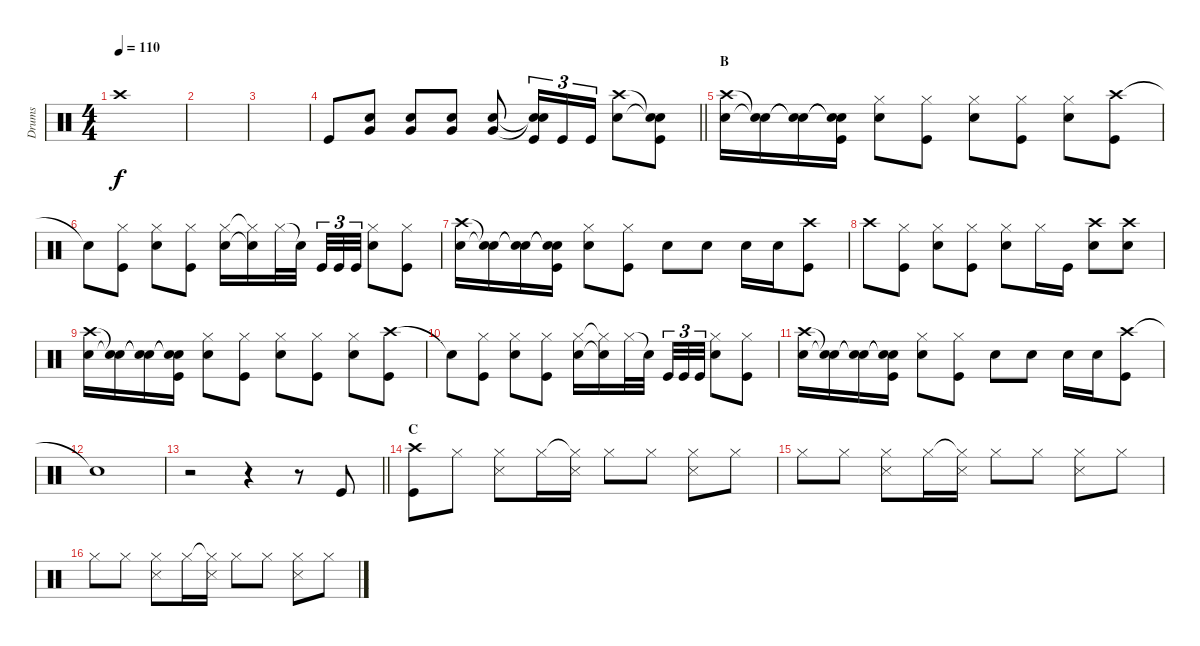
\track ("Drums" "Drums") {instrument percussion}
\staff {score}
\articulation defaults
\ts (4 4)
\tempo 110
\clef neutral
\ks c "Crash high (hit)".1{dy f}
|
|
|
\barLineRight lightlight "Kick (hit)".8
("Snare (hit) 2" "Very Low Tom (hit)").8 ("Snare (hit) 2" "Very Low Tom (hit)").8 ("Snare (hit) 2" "Very Low Tom (hit)").8 ("Snare (hit) 2" "Very Low Tom (hit)").8 ("Snare (hit)"{t} "Snare (hit)"{t} "Kick (hit)").16{tu (3 2)} "Kick (hit)".16{tu (3 2)} "Kick (hit)".16{tu (3 2)} ("Crash high (hit)" "Snare (hit) 2").8 ("Snare (hit)"{t} "Snare (hit)"{t} "Kick (hit)").8 |
\section ("" "B")
("Crash high (hit)" "Snare (hit) 2").16 ("Snare (hit)"{t} "Snare (hit)"{t}).16 ("Snare (hit)"{t} "Snare (hit)"{t}).16 ("Snare (hit)"{t} "Snare (hit)"{t} "Kick (hit)").16 ("Hi-Hat (closed)" "Snare (hit) 2").8 ("Hi-Hat (closed)" "Kick (hit)").8 ("Hi-Hat (closed)" "Snare (hit) 2").8 ("Hi-Hat (closed)" "Kick (hit)").8 ("Hi-Hat (closed)" "Snare (hit) 2").8 ("Crash high (hit)" "Kick (hit)").8 |
"Snare (hit)"{t}.8 ("Hi-Hat (closed)" "Kick (hit)").8 ("Hi-Hat (closed)" "Snare (hit) 2").8 ("Hi-Hat (closed)" "Kick (hit)").8 ("Hi-Hat (closed)" "Snare (hit) 2").16 ("Hi-Hat (closed)"{t} "Snare (hit)"{t}).16 "Hi-Hat (closed)".32 "Snare (hit)"{t}.32{beam splitsecondary} "Kick (hit)".32{tu (3 2)} "Kick (hit)".32{tu (3 2)} "Kick (hit)".32{tu (3 2)} ("Hi-Hat (closed)" "Snare (hit) 2").8 ("Hi-Hat (closed)" "Kick (hit)").8 |
("Crash high (hit)" "Snare (hit) 2").16 ("Snare (hit)"{t} "Snare (hit)"{t}).16 ("Snare (hit)"{t} "Snare (hit)"{t}).16 ("Snare (hit)"{t} "Snare (hit)"{t} "Kick (hit)").16 ("Hi-Hat (closed)" "Snare (hit) 2").8 ("Hi-Hat (closed)" "Kick (hit)").8 "Snare (hit) 2".8 "Snare (hit) 2".8 "Snare (hit) 2".16 "Snare (hit) 2".16 ("Crash high (hit)" "Kick (hit)").8 |
"Crash high (hit)".8 ("Hi-Hat (closed)" "Kick (hit)").8 ("Hi-Hat (closed)" "Snare (hit) 2").8 ("Hi-Hat (closed)" "Kick (hit)").8 ("Hi-Hat (closed)" "Snare (hit) 2").8 "Hi-Hat (closed)".16 "Kick (hit)".16 ("Crash high (hit)" "Snare (hit) 2").8 ("Crash high (hit)" "Snare (hit) 2").8 |
("Crash high (hit)" "Snare (hit) 2").16 ("Snare (hit)"{t} "Snare (hit)"{t}).16 ("Snare (hit)"{t} "Snare (hit)"{t}).16 ("Snare (hit)"{t} "Snare (hit)"{t} "Kick (hit)").16 ("Hi-Hat (closed)" "Snare (hit) 2").8 ("Hi-Hat (closed)" "Kick (hit)").8 ("Hi-Hat (closed)" "Snare (hit) 2").8 ("Hi-Hat (closed)" "Kick (hit)").8 ("Hi-Hat (closed)" "Snare (hit) 2").8 ("Crash high (hit)" "Kick (hit)").8 |
"Snare (hit)"{t}.8 ("Hi-Hat (closed)" "Kick (hit)").8 ("Hi-Hat (closed)" "Snare (hit) 2").8 ("Hi-Hat (closed)" "Kick (hit)").8 ("Hi-Hat (closed)" "Snare (hit) 2").16 ("Hi-Hat (closed)"{t} "Snare (hit)"{t}).16 "Hi-Hat (closed)".32 "Snare (hit)"{t}.32{beam splitsecondary} "Kick (hit)".32{tu (3 2)} "Kick (hit)".32{tu (3 2)} "Kick (hit)".32{tu (3 2)} ("Hi-Hat (closed)" "Snare (hit) 2").8 ("Hi-Hat (closed)" "Kick (hit)").8 |
("Crash high (hit)" "Snare (hit) 2").16 ("Snare (hit)"{t} "Snare (hit)"{t}).16 ("Snare (hit)"{t} "Snare (hit)"{t}).16 ("Snare (hit)"{t} "Snare (hit)"{t} "Kick (hit)").16 ("Hi-Hat (closed)" "Snare (hit) 2").8 ("Hi-Hat (closed)" "Kick (hit)").8 "Snare (hit) 2".8 "Snare (hit) 2".8 "Snare (hit) 2".16 "Snare (hit) 2".16 ("Crash high (hit)" "Kick (hit)").8 |
"Snare (hit)"{t}.1 |
\barLineRight lightlight
r.2 r.4 r.8 "Kick (hit)".8 |
\section ("" "C")
("Crash high (hit)" "Kick (hit)").8 "Hi-Hat (closed)".8 ("Hi-Hat (closed)" "Snare (side stick) 3").8 "Hi-Hat (closed)".16 ("Hi-Hat (closed)"{t} "Snare (side stick) 3").16 "Hi-Hat (closed)".8 "Hi-Hat (closed)".8 ("Hi-Hat (closed)" "Snare (side stick) 3").8 "Hi-Hat (closed)".8 |
"Hi-Hat (closed)".8 "Hi-Hat (closed)".8 ("Hi-Hat (closed)" "Snare (side stick) 3").8 "Hi-Hat (closed)".16 ("Hi-Hat (closed)"{t} "Snare (side stick) 3").16 "Hi-Hat (closed)".8 "Hi-Hat (closed)".8 ("Hi-Hat (closed)" "Snare (side stick) 3").8 "Hi-Hat (closed)".8 |
"Hi-Hat (closed)".8 "Hi-Hat (closed)".8 ("Hi-Hat (closed)" "Snare (side stick) 3").8 "Hi-Hat (closed)".16 ("Hi-Hat (closed)"{t} "Snare (side stick) 3").16 "Hi-Hat (closed)".8 "Hi-Hat (closed)".8 ("Hi-Hat (closed)" "Snare (side stick) 3").8 "Hi-Hat (closed)".8
